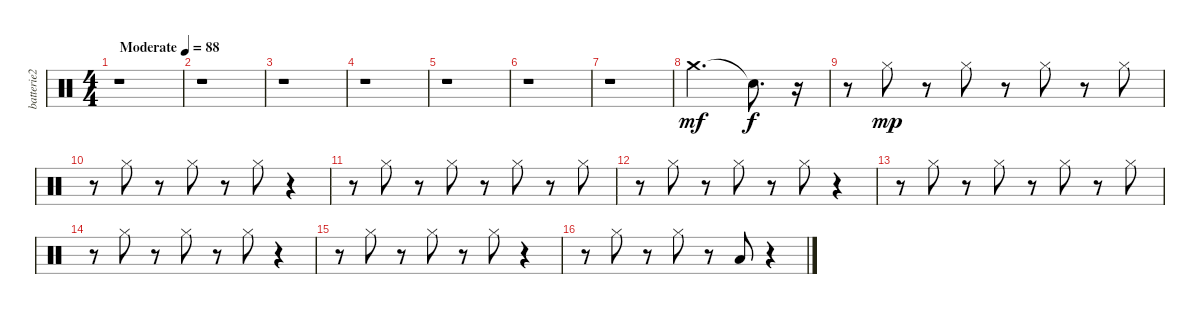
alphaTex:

\track ("batterie2" "batterie2") {instrument percussion}
\staff {score}
\articulation defaults
\ts (4 4)
\tempo (88 "Moderate")
\clef neutral
\ks c
r.1{dy mf} |
r.1 |
r.1 |
r.1 |
r.1 |
r.1 |
r.1 |
"Crash medium (hit)".2{d} "Snare (hit)"{t}.8{d dy f} r.16 |
r.8 "Hi-Hat (closed)".8{dy mp} r.8 "Hi-Hat (closed)".8 r.8 "Hi-Hat (closed)".8 r.8 "Hi-Hat (closed)".8 |
r.8 "Hi-Hat (closed)".8 r.8 "Hi-Hat (closed)".8 r.8 "Hi-Hat (closed)".8 r.4 |
r.8 "Hi-Hat (closed)".8 r.8 "Hi-Hat (closed)".8 r.8 "Hi-Hat (closed)".8 r.8 "Hi-Hat (closed)".8 |
r.8 "Hi-Hat (closed)".8 r.8 "Hi-Hat (closed)".8 r.8 "Hi-Hat (closed)".8 r.4 |
r.8 "Hi-Hat (closed)".8 r.8 "Hi-Hat (closed)".8 r.8 "Hi-Hat (closed)".8 r.8 "Hi-Hat (closed)".8 |
r.8 "Hi-Hat (closed)".8 r.8 "Hi-Hat (closed)".8 r.8 "Hi-Hat (closed)".8 r.4 |
r.8 "Hi-Hat (closed)".8 r.8 "Hi-Hat (closed)".8 r.8 "Hi-Hat (closed)".8 r.4 |
r.8 "Hi-Hat (closed)".8 r.8 "Hi-Hat (closed)".8 r.8 "Low Tom (hit)".8 r.4
